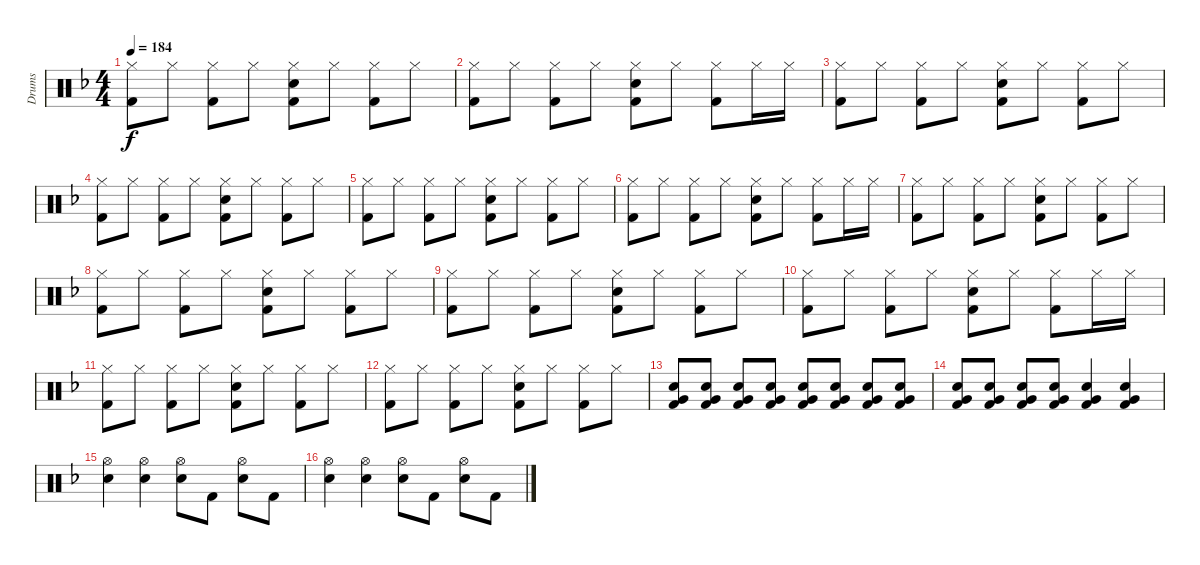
\track ("Drums" "Drums") {instrument percussion}
\staff {score}
\articulation defaults
\ts (4 4)
\tempo 184
\clef neutral
\ks f
("Hi-Hat (closed)" "Kick (hit) 2").8{dy f} "Hi-Hat (closed)".8 ("Hi-Hat (closed)" "Kick (hit) 2").8 "Hi-Hat (closed)".8 ("Hi-Hat (closed)" "Electric Snare (hit)" "Kick (hit) 2").8 "Hi-Hat (closed)".8 ("Hi-Hat (closed)" "Kick (hit) 2").8 "Hi-Hat (closed)".8 |
("Hi-Hat (closed)" "Kick (hit) 2").8 "Hi-Hat (closed)".8 ("Hi-Hat (closed)" "Kick (hit) 2").8 "Hi-Hat (closed)".8 ("Hi-Hat (closed)" "Electric Snare (hit)" "Kick (hit) 2").8 "Hi-Hat (closed)".8 ("Hi-Hat (closed)" "Kick (hit) 2").8 "Hi-Hat (closed)".16 "Hi-Hat (closed)".16 |
("Hi-Hat (closed)" "Kick (hit) 2").8 "Hi-Hat (closed)".8 ("Hi-Hat (closed)" "Kick (hit) 2").8 "Hi-Hat (closed)".8 ("Hi-Hat (closed)" "Electric Snare (hit)" "Kick (hit) 2").8 "Hi-Hat (closed)".8 ("Hi-Hat (closed)" "Kick (hit) 2").8 "Hi-Hat (closed)".8 |
("Hi-Hat (closed)" "Kick (hit) 2").8 "Hi-Hat (closed)".8 ("Hi-Hat (closed)" "Kick (hit) 2").8 "Hi-Hat (closed)".8 ("Hi-Hat (closed)" "Electric Snare (hit)" "Kick (hit) 2").8 "Hi-Hat (closed)".8 ("Hi-Hat (closed)" "Kick (hit) 2").8 "Hi-Hat (closed)".8 |
("Hi-Hat (closed)" "Kick (hit) 2").8 "Hi-Hat (closed)".8 ("Hi-Hat (closed)" "Kick (hit) 2").8 "Hi-Hat (closed)".8 ("Hi-Hat (closed)" "Electric Snare (hit)" "Kick (hit) 2").8 "Hi-Hat (closed)".8 ("Hi-Hat (closed)" "Kick (hit) 2").8 "Hi-Hat (closed)".8 |
("Hi-Hat (closed)" "Kick (hit) 2").8 "Hi-Hat (closed)".8 ("Hi-Hat (closed)" "Kick (hit) 2").8 "Hi-Hat (closed)".8 ("Hi-Hat (closed)" "Electric Snare (hit)" "Kick (hit) 2").8 "Hi-Hat (closed)".8 ("Hi-Hat (closed)" "Kick (hit) 2").8 "Hi-Hat (closed)".16 "Hi-Hat (closed)".16 |
("Hi-Hat (closed)" "Kick (hit) 2").8 "Hi-Hat (closed)".8 ("Hi-Hat (closed)" "Kick (hit) 2").8 "Hi-Hat (closed)".8 ("Hi-Hat (closed)" "Electric Snare (hit)" "Kick (hit) 2").8 "Hi-Hat (closed)".8 ("Hi-Hat (closed)" "Kick (hit) 2").8 "Hi-Hat (closed)".8 |
("Hi-Hat (closed)" "Kick (hit) 2").8 "Hi-Hat (closed)".8 ("Hi-Hat (closed)" "Kick (hit) 2").8 "Hi-Hat (closed)".8 ("Hi-Hat (closed)" "Electric Snare (hit)" "Kick (hit) 2").8 "Hi-Hat (closed)".8 ("Hi-Hat (closed)" "Kick (hit) 2").8 "Hi-Hat (closed)".8 |
("Hi-Hat (closed)" "Kick (hit) 2").8 "Hi-Hat (closed)".8 ("Hi-Hat (closed)" "Kick (hit) 2").8 "Hi-Hat (closed)".8 ("Hi-Hat (closed)" "Electric Snare (hit)" "Kick (hit) 2").8 "Hi-Hat (closed)".8 ("Hi-Hat (closed)" "Kick (hit) 2").8 "Hi-Hat (closed)".8 |
("Hi-Hat (closed)" "Kick (hit) 2").8 "Hi-Hat (closed)".8 ("Hi-Hat (closed)" "Kick (hit) 2").8 "Hi-Hat (closed)".8 ("Hi-Hat (closed)" "Electric Snare (hit)" "Kick (hit) 2").8 "Hi-Hat (closed)".8 ("Hi-Hat (closed)" "Kick (hit) 2").8 "Hi-Hat (closed)".16 "Hi-Hat (closed)".16 |
("Hi-Hat (closed)" "Kick (hit) 2").8 "Hi-Hat (closed)".8 ("Hi-Hat (closed)" "Kick (hit) 2").8 "Hi-Hat (closed)".8 ("Hi-Hat (closed)" "Electric Snare (hit)" "Kick (hit) 2").8 "Hi-Hat (closed)".8 ("Hi-Hat (closed)" "Kick (hit) 2").8 "Hi-Hat (closed)".8 |
("Hi-Hat (closed)" "Kick (hit) 2").8 "Hi-Hat (closed)".8 ("Hi-Hat (closed)" "Kick (hit) 2").8 "Hi-Hat (closed)".8 ("Hi-Hat (closed)" "Electric Snare (hit)" "Kick (hit) 2").8 "Hi-Hat (closed)".8 ("Hi-Hat (closed)" "Kick (hit) 2").8 "Hi-Hat (closed)".8 |
("Electric Snare (hit)" "Very Low Tom (hit)" "Kick (hit) 2").8 ("Electric Snare (hit)" "Very Low Tom (hit)" "Kick (hit) 2").8 ("Electric Snare (hit)" "Very Low Tom (hit)" "Kick (hit) 2").8 ("Electric Snare (hit)" "Very Low Tom (hit)" "Kick (hit) 2").8 ("Electric Snare (hit)" "Very Low Tom (hit)" "Kick (hit) 2").8 ("Electric Snare (hit)" "Very Low Tom (hit)" "Kick (hit) 2").8 ("Electric Snare (hit)" "Very Low Tom (hit)" "Kick (hit) 2").8 ("Electric Snare (hit)" "Very Low Tom (hit)" "Kick (hit) 2").8 |
("Electric Snare (hit)" "Very Low Tom (hit)" "Kick (hit) 2").8 ("Electric Snare (hit)" "Very Low Tom (hit)" "Kick (hit) 2").8 ("Electric Snare (hit)" "Very Low Tom (hit)" "Kick (hit) 2").8 ("Electric Snare (hit)" "Very Low Tom (hit)" "Kick (hit) 2").8 ("Electric Snare (hit)" "Very Low Tom (hit)" "Kick (hit) 2").4 ("Electric Snare (hit)" "Very Low Tom (hit)" "Kick (hit) 2").4 |
("Hi-Hat (open)" "Electric Snare (hit)").4 ("Hi-Hat (open)" "Electric Snare (hit)").4 ("Hi-Hat (open)" "Electric Snare (hit)").8 "Kick (hit) 2".8 ("Hi-Hat (open)" "Electric Snare (hit)").8 "Kick (hit) 2".8 |
("Hi-Hat (open)" "Electric Snare (hit)").4 ("Hi-Hat (open)" "Electric Snare (hit)").4 ("Hi-Hat (open)" "Electric Snare (hit)").8 "Kick (hit) 2".8 ("Hi-Hat (open)" "Electric Snare (hit)").8 "Kick (hit) 2".8
